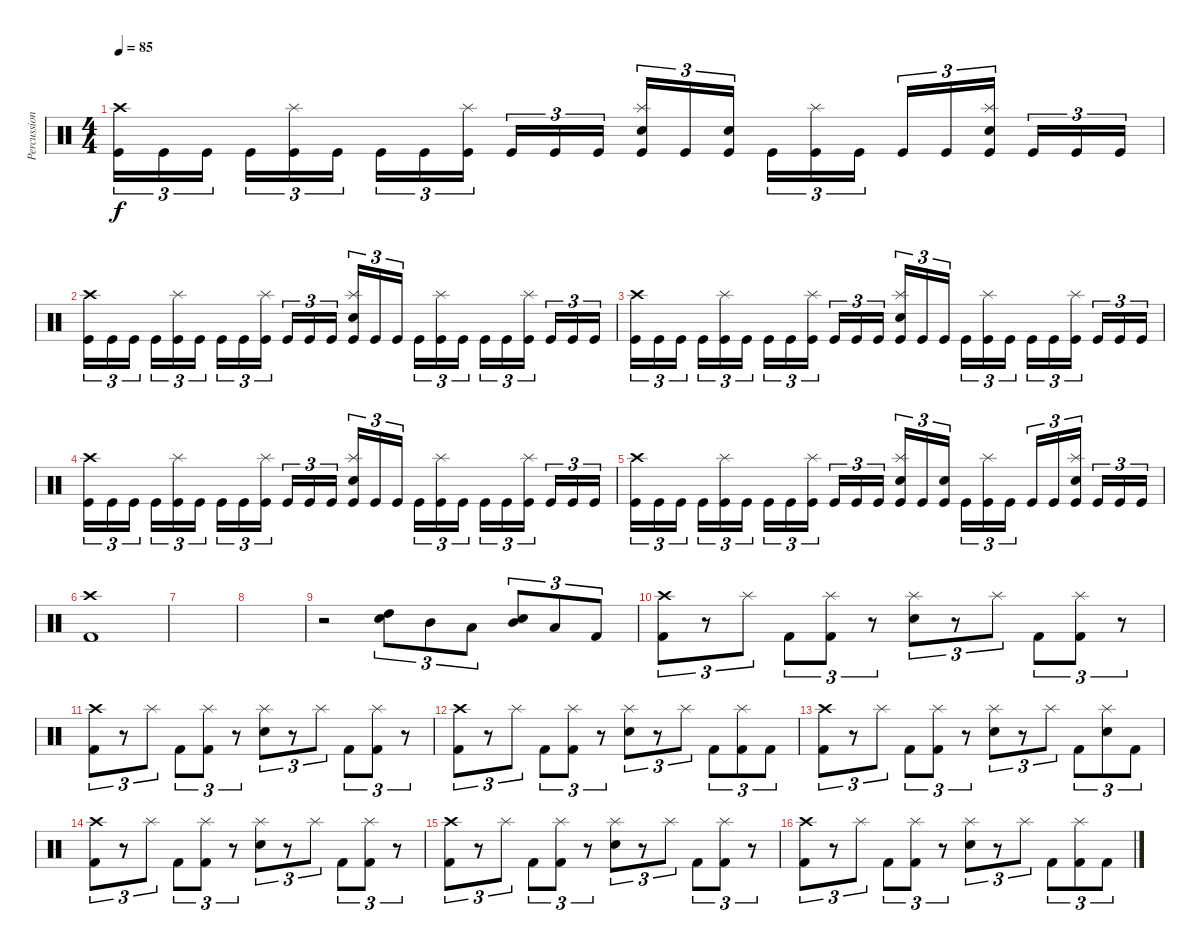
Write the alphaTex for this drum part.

\track ("Percussion" "Percussion") {instrument percussion}
\staff {score}
\articulation defaults
\ts (4 4)
\tempo 85
\clef neutral
\ks c
("Crash high (hit)" "Kick (hit)").16{tu (3 2) dy f} "Kick (hit)".16{tu (3 2)} "Kick (hit)".16{tu (3 2)} "Kick (hit)".16{tu (3 2)} ("Splash (hit)" "Kick (hit)").16{tu (3 2)} "Kick (hit)".16{tu (3 2)} "Kick (hit)".16{tu (3 2)} "Kick (hit)".16{tu (3 2)} ("Splash (hit)" "Kick (hit)").16{tu (3 2)} "Kick (hit)".16{tu (3 2)} "Kick (hit)".16{tu (3 2)} "Kick (hit)".16{tu (3 2)} ("Splash (hit)" "Electric Snare (hit)" "Kick (hit)").16{tu (3 2)} "Kick (hit)".16{tu (3 2)} ("Electric Snare (hit)" "Kick (hit)").16{tu (3 2)} "Kick (hit)".16{tu (3 2)} ("Splash (hit)" "Kick (hit)").16{tu (3 2)} "Kick (hit)".16{tu (3 2)} "Kick (hit)".16{tu (3 2)} "Kick (hit)".16{tu (3 2)} ("Splash (hit)" "Electric Snare (hit)" "Kick (hit)").16{tu (3 2)} "Kick (hit)".16{tu (3 2)} "Kick (hit)".16{tu (3 2)} "Kick (hit)".16{tu (3 2)} |
("Crash high (hit)" "Kick (hit)").16{tu (3 2)} "Kick (hit)".16{tu (3 2)} "Kick (hit)".16{tu (3 2)} "Kick (hit)".16{tu (3 2)} ("Splash (hit)" "Kick (hit)").16{tu (3 2)} "Kick (hit)".16{tu (3 2)} "Kick (hit)".16{tu (3 2)} "Kick (hit)".16{tu (3 2)} ("Splash (hit)" "Kick (hit)").16{tu (3 2)} "Kick (hit)".16{tu (3 2)} "Kick (hit)".16{tu (3 2)} "Kick (hit)".16{tu (3 2)} ("Splash (hit)" "Electric Snare (hit)" "Kick (hit)").16{tu (3 2)} "Kick (hit)".16{tu (3 2)} "Kick (hit)".16{tu (3 2)} "Kick (hit)".16{tu (3 2)} ("Splash (hit)" "Kick (hit)").16{tu (3 2)} "Kick (hit)".16{tu (3 2)} "Kick (hit)".16{tu (3 2)} "Kick (hit)".16{tu (3 2)} ("Splash (hit)" "Kick (hit)").16{tu (3 2)} "Kick (hit)".16{tu (3 2)} "Kick (hit)".16{tu (3 2)} "Kick (hit)".16{tu (3 2)} |
("Crash high (hit)" "Kick (hit)").16{tu (3 2)} "Kick (hit)".16{tu (3 2)} "Kick (hit)".16{tu (3 2)} "Kick (hit)".16{tu (3 2)} ("Splash (hit)" "Kick (hit)").16{tu (3 2)} "Kick (hit)".16{tu (3 2)} "Kick (hit)".16{tu (3 2)} "Kick (hit)".16{tu (3 2)} ("Splash (hit)" "Kick (hit)").16{tu (3 2)} "Kick (hit)".16{tu (3 2)} "Kick (hit)".16{tu (3 2)} "Kick (hit)".16{tu (3 2)} ("Splash (hit)" "Electric Snare (hit)" "Kick (hit)").16{tu (3 2)} "Kick (hit)".16{tu (3 2)} "Kick (hit)".16{tu (3 2)} "Kick (hit)".16{tu (3 2)} ("Splash (hit)" "Kick (hit)").16{tu (3 2)} "Kick (hit)".16{tu (3 2)} "Kick (hit)".16{tu (3 2)} "Kick (hit)".16{tu (3 2)} ("Splash (hit)" "Kick (hit)").16{tu (3 2)} "Kick (hit)".16{tu (3 2)} "Kick (hit)".16{tu (3 2)} "Kick (hit)".16{tu (3 2)} |
("Crash high (hit)" "Kick (hit)").16{tu (3 2)} "Kick (hit)".16{tu (3 2)} "Kick (hit)".16{tu (3 2)} "Kick (hit)".16{tu (3 2)} ("Splash (hit)" "Kick (hit)").16{tu (3 2)} "Kick (hit)".16{tu (3 2)} "Kick (hit)".16{tu (3 2)} "Kick (hit)".16{tu (3 2)} ("Splash (hit)" "Kick (hit)").16{tu (3 2)} "Kick (hit)".16{tu (3 2)} "Kick (hit)".16{tu (3 2)} "Kick (hit)".16{tu (3 2)} ("Splash (hit)" "Electric Snare (hit)" "Kick (hit)").16{tu (3 2)} "Kick (hit)".16{tu (3 2)} "Kick (hit)".16{tu (3 2)} "Kick (hit)".16{tu (3 2)} ("Splash (hit)" "Kick (hit)").16{tu (3 2)} "Kick (hit)".16{tu (3 2)} "Kick (hit)".16{tu (3 2)} "Kick (hit)".16{tu (3 2)} ("Splash (hit)" "Kick (hit)").16{tu (3 2)} "Kick (hit)".16{tu (3 2)} "Kick (hit)".16{tu (3 2)} "Kick (hit)".16{tu (3 2)} |
("Crash high (hit)" "Kick (hit)").16{tu (3 2)} "Kick (hit)".16{tu (3 2)} "Kick (hit)".16{tu (3 2)} "Kick (hit)".16{tu (3 2)} ("Splash (hit)" "Kick (hit)").16{tu (3 2)} "Kick (hit)".16{tu (3 2)} "Kick (hit)".16{tu (3 2)} "Kick (hit)".16{tu (3 2)} ("Splash (hit)" "Kick (hit)").16{tu (3 2)} "Kick (hit)".16{tu (3 2)} "Kick (hit)".16{tu (3 2)} "Kick (hit)".16{tu (3 2)} ("Splash (hit)" "Electric Snare (hit)" "Kick (hit)").16{tu (3 2)} "Kick (hit)".16{tu (3 2)} ("Electric Snare (hit)" "Kick (hit)").16{tu (3 2)} "Kick (hit)".16{tu (3 2)} ("Splash (hit)" "Kick (hit)").16{tu (3 2)} "Kick (hit)".16{tu (3 2)} "Kick (hit)".16{tu (3 2)} "Kick (hit)".16{tu (3 2)} ("Splash (hit)" "Electric Snare (hit)" "Kick (hit)").16{tu (3 2)} "Kick (hit)".16{tu (3 2)} "Kick (hit)".16{tu (3 2)} "Kick (hit)".16{tu (3 2)} |
("Crash high (hit)" "Kick (hit) 2").1 |
|
|
r.2 ("High Tom (hit)" "Electric Snare (hit)").8{tu (3 2)} "Mid Tom (hit)".8{tu (3 2)} "Low Tom (hit)".8{tu (3 2)} ("Mid Tom (hit)" "Electric Snare (hit)").8{tu (3 2)} "Low Tom (hit)".8{tu (3 2)} "Kick (hit) 2".8{tu (3 2)} |
("Crash high (hit)" "Kick (hit) 2").8{tu (3 2)} r.8{tu (3 2)} "Splash (hit)".8{tu (3 2)} "Kick (hit) 2".8{tu (3 2)} ("Splash (hit)" "Kick (hit) 2").8{tu (3 2)} r.8{tu (3 2)} ("Splash (hit)" "Electric Snare (hit)").8{tu (3 2)} r.8{tu (3 2)} "Splash (hit)".8{tu (3 2)} "Kick (hit) 2".8{tu (3 2)} ("Splash (hit)" "Kick (hit) 2").8{tu (3 2)} r.8{tu (3 2)} |
("Crash high (hit)" "Kick (hit) 2").8{tu (3 2)} r.8{tu (3 2)} "Splash (hit)".8{tu (3 2)} "Kick (hit) 2".8{tu (3 2)} ("Splash (hit)" "Kick (hit) 2").8{tu (3 2)} r.8{tu (3 2)} ("Splash (hit)" "Electric Snare (hit)").8{tu (3 2)} r.8{tu (3 2)} "Splash (hit)".8{tu (3 2)} "Kick (hit) 2".8{tu (3 2)} ("Splash (hit)" "Kick (hit) 2").8{tu (3 2)} r.8{tu (3 2)} |
("Crash high (hit)" "Kick (hit) 2").8{tu (3 2)} r.8{tu (3 2)} "Splash (hit)".8{tu (3 2)} "Kick (hit) 2".8{tu (3 2)} ("Splash (hit)" "Kick (hit) 2").8{tu (3 2)} r.8{tu (3 2)} ("Splash (hit)" "Electric Snare (hit)").8{tu (3 2)} r.8{tu (3 2)} "Splash (hit)".8{tu (3 2)} "Kick (hit) 2".8{tu (3 2)} ("Splash (hit)" "Kick (hit) 2").8{tu (3 2)} "Kick (hit) 2".8{tu (3 2)} |
("Crash high (hit)" "Kick (hit) 2").8{tu (3 2)} r.8{tu (3 2)} "Splash (hit)".8{tu (3 2)} "Kick (hit) 2".8{tu (3 2)} ("Splash (hit)" "Kick (hit) 2").8{tu (3 2)} r.8{tu (3 2)} ("Splash (hit)" "Electric Snare (hit)").8{tu (3 2)} r.8{tu (3 2)} "Splash (hit)".8{tu (3 2)} "Kick (hit) 2".8{tu (3 2)} ("Splash (hit)" "Electric Snare (hit)").8{tu (3 2)} "Kick (hit) 2".8{tu (3 2)} |
("Crash high (hit)" "Kick (hit) 2").8{tu (3 2)} r.8{tu (3 2)} "Splash (hit)".8{tu (3 2)} "Kick (hit) 2".8{tu (3 2)} ("Splash (hit)" "Kick (hit) 2").8{tu (3 2)} r.8{tu (3 2)} ("Splash (hit)" "Electric Snare (hit)").8{tu (3 2)} r.8{tu (3 2)} "Splash (hit)".8{tu (3 2)} "Kick (hit) 2".8{tu (3 2)} ("Splash (hit)" "Kick (hit) 2").8{tu (3 2)} r.8{tu (3 2)} |
("Crash high (hit)" "Kick (hit) 2").8{tu (3 2)} r.8{tu (3 2)} "Splash (hit)".8{tu (3 2)} "Kick (hit) 2".8{tu (3 2)} ("Splash (hit)" "Kick (hit) 2").8{tu (3 2)} r.8{tu (3 2)} ("Splash (hit)" "Electric Snare (hit)").8{tu (3 2)} r.8{tu (3 2)} "Splash (hit)".8{tu (3 2)} "Kick (hit) 2".8{tu (3 2)} ("Splash (hit)" "Kick (hit) 2").8{tu (3 2)} r.8{tu (3 2)} |
("Crash high (hit)" "Kick (hit) 2").8{tu (3 2)} r.8{tu (3 2)} "Splash (hit)".8{tu (3 2)} "Kick (hit) 2".8{tu (3 2)} ("Splash (hit)" "Kick (hit) 2").8{tu (3 2)} r.8{tu (3 2)} ("Splash (hit)" "Electric Snare (hit)").8{tu (3 2)} r.8{tu (3 2)} "Splash (hit)".8{tu (3 2)} "Kick (hit) 2".8{tu (3 2)} ("Splash (hit)" "Kick (hit) 2").8{tu (3 2)} "Kick (hit) 2".8{tu (3 2)}
